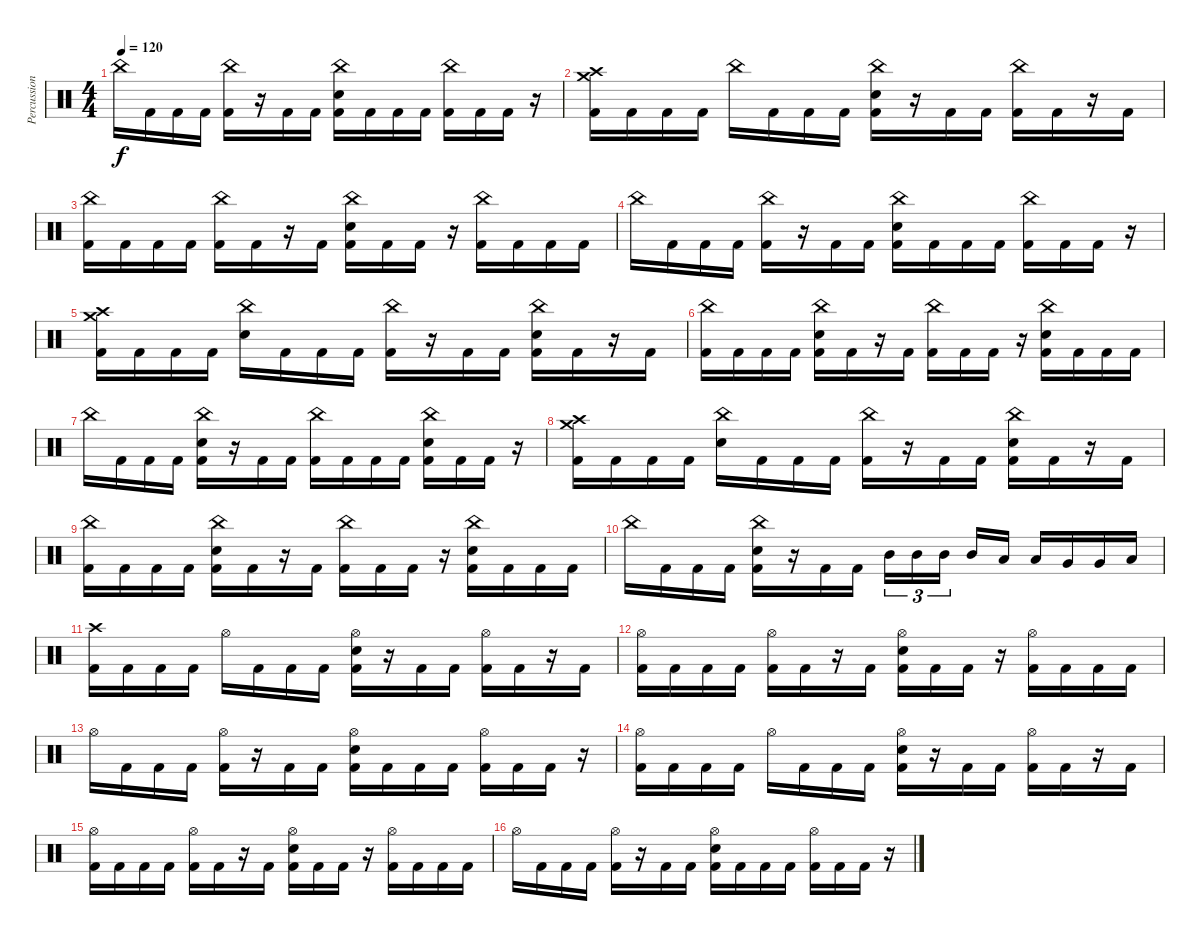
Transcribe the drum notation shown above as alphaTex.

\track ("Percussion" "Percussion") {instrument percussion}
\staff {score}
\articulation defaults
\ts (4 4)
\tempo 120
\clef neutral
\ks c "China (hit)".16{dy f} "Kick (hit) 2".16 "Kick (hit) 2".16 "Kick (hit) 2".16
("China (hit)" "Kick (hit) 2").16 r.16 "Kick (hit) 2".16 "Kick (hit) 2".16 ("China (hit)" "Electric Snare (hit)" "Kick (hit) 2").16 "Kick (hit) 2".16 "Kick (hit) 2".16 "Kick (hit) 2".16 ("China (hit)" "Kick (hit) 2").16 "Kick (hit) 2".16 "Kick (hit) 2".16 r.16 |
("Crash high (hit)" "Crash medium (hit)" "Kick (hit) 2").16 "Kick (hit) 2".16 "Kick (hit) 2".16 "Kick (hit) 2".16 "China (hit)".16 "Kick (hit) 2".16 "Kick (hit) 2".16 "Kick (hit) 2".16 ("China (hit)" "Electric Snare (hit)" "Kick (hit) 2").16 r.16 "Kick (hit) 2".16 "Kick (hit) 2".16 ("China (hit)" "Kick (hit) 2").16 "Kick (hit) 2".16 r.16 "Kick (hit) 2".16 |
("China (hit)" "Kick (hit) 2").16 "Kick (hit) 2".16 "Kick (hit) 2".16 "Kick (hit) 2".16 ("China (hit)" "Kick (hit) 2").16 "Kick (hit) 2".16 r.16 "Kick (hit) 2".16 ("China (hit)" "Electric Snare (hit)" "Kick (hit) 2").16 "Kick (hit) 2".16 "Kick (hit) 2".16 r.16 ("China (hit)" "Kick (hit) 2").16 "Kick (hit) 2".16 "Kick (hit) 2".16 "Kick (hit) 2".16 |
"China (hit)".16 "Kick (hit) 2".16 "Kick (hit) 2".16 "Kick (hit) 2".16 ("China (hit)" "Kick (hit) 2").16 r.16 "Kick (hit) 2".16 "Kick (hit) 2".16 ("China (hit)" "Electric Snare (hit)" "Kick (hit) 2").16 "Kick (hit) 2".16 "Kick (hit) 2".16 "Kick (hit) 2".16 ("China (hit)" "Kick (hit) 2").16 "Kick (hit) 2".16 "Kick (hit) 2".16 r.16 |
("Crash high (hit)" "Crash medium (hit)" "Kick (hit) 2").16 "Kick (hit) 2".16 "Kick (hit) 2".16 "Kick (hit) 2".16 ("China (hit)" "Electric Snare (hit)").16 "Kick (hit) 2".16 "Kick (hit) 2".16 "Kick (hit) 2".16 ("China (hit)" "Kick (hit) 2").16 r.16 "Kick (hit) 2".16 "Kick (hit) 2".16 ("China (hit)" "Electric Snare (hit)" "Kick (hit) 2").16 "Kick (hit) 2".16 r.16 "Kick (hit) 2".16 |
("China (hit)" "Kick (hit) 2").16 "Kick (hit) 2".16 "Kick (hit) 2".16 "Kick (hit) 2".16 ("China (hit)" "Electric Snare (hit)" "Kick (hit) 2").16 "Kick (hit) 2".16 r.16 "Kick (hit) 2".16 ("China (hit)" "Kick (hit) 2").16 "Kick (hit) 2".16 "Kick (hit) 2".16 r.16 ("China (hit)" "Electric Snare (hit)" "Kick (hit) 2").16 "Kick (hit) 2".16 "Kick (hit) 2".16 "Kick (hit) 2".16 |
"China (hit)".16 "Kick (hit) 2".16 "Kick (hit) 2".16 "Kick (hit) 2".16 ("China (hit)" "Electric Snare (hit)" "Kick (hit) 2").16 r.16 "Kick (hit) 2".16 "Kick (hit) 2".16 ("China (hit)" "Kick (hit) 2").16 "Kick (hit) 2".16 "Kick (hit) 2".16 "Kick (hit) 2".16 ("China (hit)" "Electric Snare (hit)" "Kick (hit) 2").16 "Kick (hit) 2".16 "Kick (hit) 2".16 r.16 |
("Crash high (hit)" "Crash medium (hit)" "Kick (hit) 2").16 "Kick (hit) 2".16 "Kick (hit) 2".16 "Kick (hit) 2".16 ("China (hit)" "Electric Snare (hit)").16 "Kick (hit) 2".16 "Kick (hit) 2".16 "Kick (hit) 2".16 ("China (hit)" "Kick (hit) 2").16 r.16 "Kick (hit) 2".16 "Kick (hit) 2".16 ("China (hit)" "Electric Snare (hit)" "Kick (hit) 2").16 "Kick (hit) 2".16 r.16 "Kick (hit) 2".16 |
("China (hit)" "Kick (hit) 2").16 "Kick (hit) 2".16 "Kick (hit) 2".16 "Kick (hit) 2".16 ("China (hit)" "Electric Snare (hit)" "Kick (hit) 2").16 "Kick (hit) 2".16 r.16 "Kick (hit) 2".16 ("China (hit)" "Kick (hit) 2").16 "Kick (hit) 2".16 "Kick (hit) 2".16 r.16 ("China (hit)" "Electric Snare (hit)" "Kick (hit) 2").16 "Kick (hit) 2".16 "Kick (hit) 2".16 "Kick (hit) 2".16 |
"China (hit)".16 "Kick (hit) 2".16 "Kick (hit) 2".16 "Kick (hit) 2".16 ("China (hit)" "Electric Snare (hit)" "Kick (hit) 2").16 r.16 "Kick (hit) 2".16 "Kick (hit) 2".16 "Mid Tom (hit)".16{tu (3 2)} "Mid Tom (hit)".16{tu (3 2)} "Mid Tom (hit)".16{tu (3 2) beam splitsecondary} "Mid Tom (hit)".16 "Low Tom (hit)".16 "Low Tom (hit)".16 "Very Low Tom (hit)".16 "Very Low Tom (hit)".16 "Low Floor Tom (hit)".16 |
("Crash high (hit)" "Kick (hit) 2").16 "Kick (hit) 2".16 "Kick (hit) 2".16 "Kick (hit) 2".16 "Hi-Hat (open)".16 "Kick (hit) 2".16 "Kick (hit) 2".16 "Kick (hit) 2".16 ("Hi-Hat (open)" "Electric Snare (hit)" "Kick (hit) 2").16 r.16 "Kick (hit) 2".16 "Kick (hit) 2".16 ("Hi-Hat (open)" "Kick (hit) 2").16 "Kick (hit) 2".16 r.16 "Kick (hit) 2".16 |
("Hi-Hat (open)" "Kick (hit) 2").16 "Kick (hit) 2".16 "Kick (hit) 2".16 "Kick (hit) 2".16 ("Hi-Hat (open)" "Kick (hit) 2").16 "Kick (hit) 2".16 r.16 "Kick (hit) 2".16 ("Hi-Hat (open)" "Electric Snare (hit)" "Kick (hit) 2").16 "Kick (hit) 2".16 "Kick (hit) 2".16 r.16 ("Hi-Hat (open)" "Kick (hit) 2").16 "Kick (hit) 2".16 "Kick (hit) 2".16 "Kick (hit) 2".16 |
"Hi-Hat (open)".16 "Kick (hit) 2".16 "Kick (hit) 2".16 "Kick (hit) 2".16 ("Hi-Hat (open)" "Kick (hit) 2").16 r.16 "Kick (hit) 2".16 "Kick (hit) 2".16 ("Hi-Hat (open)" "Electric Snare (hit)" "Kick (hit) 2").16 "Kick (hit) 2".16 "Kick (hit) 2".16 "Kick (hit) 2".16 ("Hi-Hat (open)" "Kick (hit) 2").16 "Kick (hit) 2".16 "Kick (hit) 2".16 r.16 |
("Hi-Hat (open)" "Kick (hit) 2").16 "Kick (hit) 2".16 "Kick (hit) 2".16 "Kick (hit) 2".16 "Hi-Hat (open)".16 "Kick (hit) 2".16 "Kick (hit) 2".16 "Kick (hit) 2".16 ("Hi-Hat (open)" "Electric Snare (hit)" "Kick (hit) 2").16 r.16 "Kick (hit) 2".16 "Kick (hit) 2".16 ("Hi-Hat (open)" "Kick (hit) 2").16 "Kick (hit) 2".16 r.16 "Kick (hit) 2".16 |
("Hi-Hat (open)" "Kick (hit) 2").16 "Kick (hit) 2".16 "Kick (hit) 2".16 "Kick (hit) 2".16 ("Hi-Hat (open)" "Kick (hit) 2").16 "Kick (hit) 2".16 r.16 "Kick (hit) 2".16 ("Hi-Hat (open)" "Electric Snare (hit)" "Kick (hit) 2").16 "Kick (hit) 2".16 "Kick (hit) 2".16 r.16 ("Hi-Hat (open)" "Kick (hit) 2").16 "Kick (hit) 2".16 "Kick (hit) 2".16 "Kick (hit) 2".16 |
"Hi-Hat (open)".16 "Kick (hit) 2".16 "Kick (hit) 2".16 "Kick (hit) 2".16 ("Hi-Hat (open)" "Kick (hit) 2").16 r.16 "Kick (hit) 2".16 "Kick (hit) 2".16 ("Hi-Hat (open)" "Electric Snare (hit)" "Kick (hit) 2").16 "Kick (hit) 2".16 "Kick (hit) 2".16 "Kick (hit) 2".16 ("Hi-Hat (open)" "Kick (hit) 2").16 "Kick (hit) 2".16 "Kick (hit) 2".16 r.16
